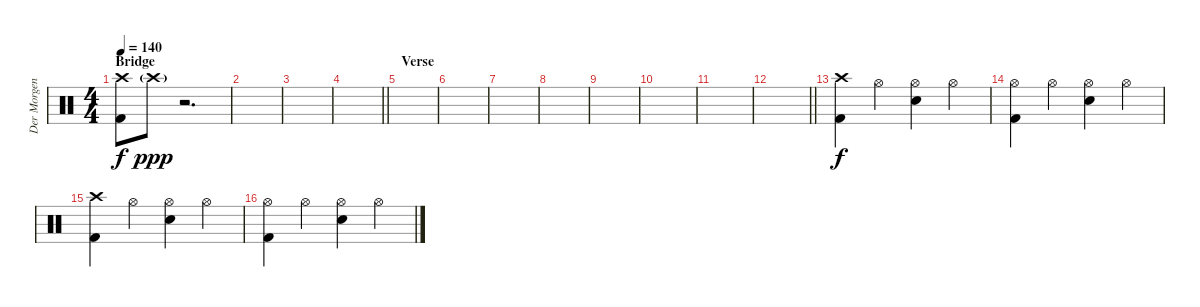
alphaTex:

\track ("Der Morgenstern" "Der Morgen") {instrument percussion}
\staff {score}
\articulation defaults
\ts (4 4)
\section ("" "Bridge")
\tempo 140
\clef neutral
\ks c
("Crash high (hit)" "Kick (hit) 2").8{dy f} "Crash high (hit)"{g}.8{dy ppp} r.2{d} |
|
|
\barLineRight lightlight
|
\section ("" "Verse")
|
|
|
|
|
|
|
\barLineRight lightlight
|
("Crash high (hit)" "Kick (hit) 2").4{dy f} "Hi-Hat (open)".4 ("Hi-Hat (open)" "Electric Snare (hit)").4 "Hi-Hat (open)".4 |
("Hi-Hat (open)" "Kick (hit) 2").4 "Hi-Hat (open)".4 ("Hi-Hat (open)" "Electric Snare (hit)").4 "Hi-Hat (open)".4 |
("Crash high (hit)" "Kick (hit) 2").4 "Hi-Hat (open)".4 ("Hi-Hat (open)" "Electric Snare (hit)").4 "Hi-Hat (open)".4 |
("Hi-Hat (open)" "Kick (hit) 2").4 "Hi-Hat (open)".4 ("Hi-Hat (open)" "Electric Snare (hit)").4 "Hi-Hat (open)".4
